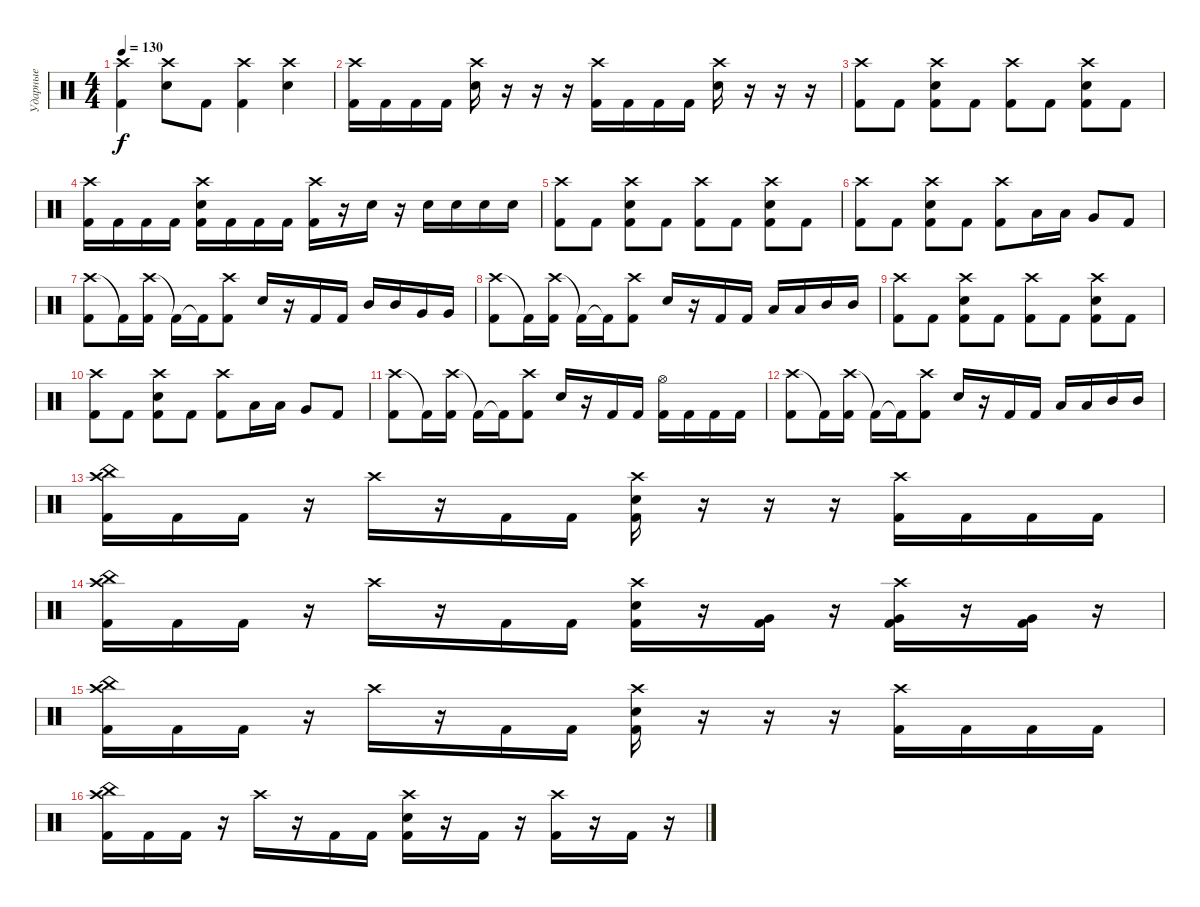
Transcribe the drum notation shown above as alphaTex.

\track ("Ударные" "Ударные") {instrument percussion}
\staff {score}
\articulation defaults
\ts (4 4)
\tempo 130
\clef neutral
\ks c
("Crash high (hit)" "Kick (hit) 2").4{dy f} ("Crash high (hit)" "Snare (hit) 2").8 "Kick (hit) 2".8 ("Crash high (hit)" "Kick (hit) 2").4 ("Crash high (hit)" "Snare (hit) 2").4 |
("Crash high (hit)" "Kick (hit) 2").16 "Kick (hit) 2".16 "Kick (hit) 2".16 "Kick (hit) 2".16 ("Crash high (hit)" "Snare (hit) 2").16 r.16 r.16 r.16 ("Crash high (hit)" "Kick (hit) 2").16 "Kick (hit) 2".16 "Kick (hit) 2".16 "Kick (hit) 2".16 ("Crash high (hit)" "Snare (hit) 2").16 r.16 r.16 r.16 |
("Crash high (hit)" "Kick (hit) 2").8 "Kick (hit) 2".8 ("Crash high (hit)" "Snare (hit) 2" "Kick (hit) 2").8 "Kick (hit) 2".8 ("Crash high (hit)" "Kick (hit) 2").8 "Kick (hit) 2".8 ("Crash high (hit)" "Snare (hit) 2" "Kick (hit) 2").8 "Kick (hit) 2".8 |
("Crash high (hit)" "Kick (hit) 2").16 "Kick (hit) 2".16 "Kick (hit) 2".16 "Kick (hit) 2".16 ("Crash high (hit)" "Snare (hit) 2" "Kick (hit) 2").16 "Kick (hit) 2".16 "Kick (hit) 2".16 "Kick (hit) 2".16 ("Crash high (hit)" "Kick (hit) 2").16 r.16 "Snare (hit) 2".16 r.16 "Snare (hit) 2".16 "Snare (hit) 2".16 "Snare (hit) 2".16 "Snare (hit) 2".16 |
("Crash high (hit)" "Kick (hit) 2").8 "Kick (hit) 2".8 ("Crash high (hit)" "Snare (hit) 2" "Kick (hit) 2").8 "Kick (hit) 2".8 ("Crash high (hit)" "Kick (hit) 2").8 "Kick (hit) 2".8 ("Crash high (hit)" "Snare (hit) 2" "Kick (hit) 2").8 "Kick (hit) 2".8 |
("Crash high (hit)" "Kick (hit) 2").8 "Kick (hit) 2".8 ("Crash high (hit)" "Snare (hit) 2" "Kick (hit) 2").8 "Kick (hit) 2".8 ("Crash high (hit)" "Kick (hit) 2").8 "Low Tom (hit)".16 "Low Tom (hit)".16 "Very Low Tom (hit)".8 "Kick (hit) 2".8 |
("Crash high (hit)" "Kick (hit) 2").8 "Kick (hit) 2"{t}.16 ("Crash high (hit)" "Kick (hit) 2").16 "Kick (hit) 2"{t}.16 "Kick (hit) 2"{t}.16 ("Crash high (hit)" "Kick (hit) 2").8 "Snare (hit) 2".16 r.16 "Kick (hit) 2".16 "Kick (hit) 2".16 "Mid Tom (hit)".16 "Mid Tom (hit)".16 "Very Low Tom (hit)".16 "Very Low Tom (hit)".16 |
("Crash high (hit)" "Kick (hit) 2").8 "Kick (hit) 2"{t}.16 ("Crash high (hit)" "Kick (hit) 2").16 "Kick (hit) 2"{t}.16 "Kick (hit) 2"{t}.16 ("Crash high (hit)" "Kick (hit) 2").8 "Snare (hit) 2".16 r.16 "Kick (hit) 2".16 "Kick (hit) 2".16 "Low Tom (hit)".16 "Low Tom (hit)".16 "Mid Tom (hit)".16 "Mid Tom (hit)".16 |
("Crash high (hit)" "Kick (hit) 2").8 "Kick (hit) 2".8 ("Crash high (hit)" "Snare (hit) 2" "Kick (hit) 2").8 "Kick (hit) 2".8 ("Crash high (hit)" "Kick (hit) 2").8 "Kick (hit) 2".8 ("Crash high (hit)" "Snare (hit) 2" "Kick (hit) 2").8 "Kick (hit) 2".8 |
("Crash high (hit)" "Kick (hit) 2").8 "Kick (hit) 2".8 ("Crash high (hit)" "Snare (hit) 2" "Kick (hit) 2").8 "Kick (hit) 2".8 ("Crash high (hit)" "Kick (hit) 2").8 "Low Tom (hit)".16 "Low Tom (hit)".16 "Very Low Tom (hit)".8 "Kick (hit) 2".8 |
("Crash high (hit)" "Kick (hit) 2").8 "Kick (hit) 2"{t}.16 ("Crash high (hit)" "Kick (hit) 2").16 "Kick (hit) 2"{t}.16 "Kick (hit) 2"{t}.16 ("Crash high (hit)" "Kick (hit) 2").8 "Snare (hit) 2".16 r.16 "Kick (hit) 2".16 "Kick (hit) 2".16 ("Hi-Hat (open)" "Kick (hit) 2").16 "Kick (hit) 2".16 "Kick (hit) 2".16 "Kick (hit) 2".16 |
("Crash high (hit)" "Kick (hit) 2").8 "Kick (hit) 2"{t}.16 ("Crash high (hit)" "Kick (hit) 2").16 "Kick (hit) 2"{t}.16 "Kick (hit) 2"{t}.16 ("Crash high (hit)" "Kick (hit) 2").8 "Snare (hit) 2".16 r.16 "Kick (hit) 2".16 "Kick (hit) 2".16 "Low Tom (hit)".16 "Low Tom (hit)".16 "Mid Tom (hit)".16 "Mid Tom (hit)".16 |
("Crash high (hit)" "China (hit)" "Kick (hit) 2").16 "Kick (hit) 2".16 "Kick (hit) 2".16 r.16 "Crash high (hit)".16 r.16 "Kick (hit) 2".16 "Kick (hit) 2".16 ("Crash high (hit)" "Snare (hit) 2" "Kick (hit) 2").16 r.16 r.16 r.16 ("Crash high (hit)" "Kick (hit) 2").16 "Kick (hit) 2".16 "Kick (hit) 2".16 "Kick (hit) 2".16 |
("Crash high (hit)" "China (hit)" "Kick (hit) 2").16 "Kick (hit) 2".16 "Kick (hit) 2".16 r.16 "Crash high (hit)".16 r.16 "Kick (hit) 2".16 "Kick (hit) 2".16 ("Crash high (hit)" "Snare (hit) 2" "Kick (hit) 2").16 r.16 ("Very Low Tom (hit)" "Kick (hit) 2").16 r.16 ("Crash high (hit)" "Very Low Tom (hit)" "Kick (hit) 2").16 r.16 ("Very Low Tom (hit)" "Kick (hit) 2").16 r.16 |
("Crash high (hit)" "China (hit)" "Kick (hit) 2").16 "Kick (hit) 2".16 "Kick (hit) 2".16 r.16 "Crash high (hit)".16 r.16 "Kick (hit) 2".16 "Kick (hit) 2".16 ("Crash high (hit)" "Snare (hit) 2" "Kick (hit) 2").16 r.16 r.16 r.16 ("Crash high (hit)" "Kick (hit) 2").16 "Kick (hit) 2".16 "Kick (hit) 2".16 "Kick (hit) 2".16 |
("Crash high (hit)" "China (hit)" "Kick (hit) 2").16 "Kick (hit) 2".16 "Kick (hit) 2".16 r.16 "Crash high (hit)".16 r.16 "Kick (hit) 2".16 "Kick (hit) 2".16 ("Crash high (hit)" "Snare (hit) 2" "Kick (hit) 2").16 r.16 "Kick (hit) 2".16 r.16 ("Crash high (hit)" "Kick (hit) 2").16 r.16 "Kick (hit) 2".16 r.16
